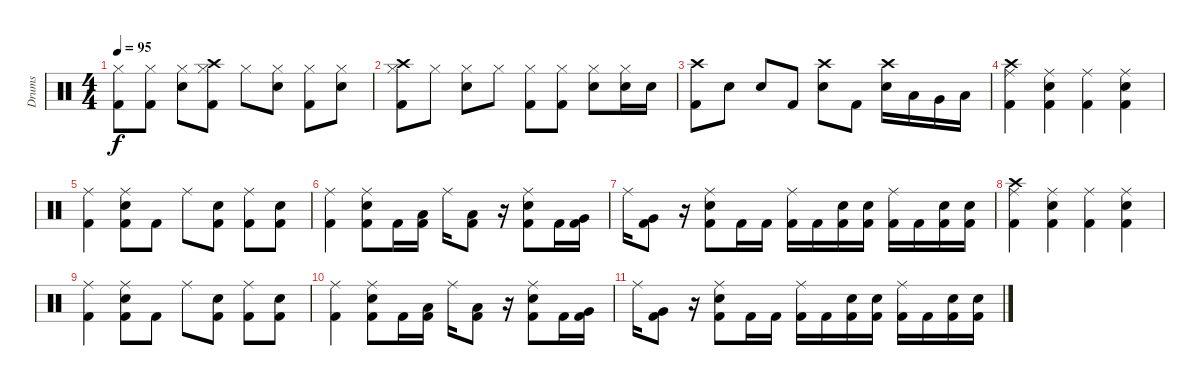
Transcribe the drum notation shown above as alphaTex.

\track ("Drums" "Drums") {instrument percussion}
\staff {score}
\articulation defaults
\ts (4 4)
\tempo 95
\clef neutral
\ks c
("Hi-Hat (closed)" "Kick (hit) 2").8{dy f} ("Hi-Hat (closed)" "Kick (hit) 2").8 ("Hi-Hat (closed)" "Electric Snare (hit)").8 ("Crash high (hit)" "Hi-Hat (closed)" "Kick (hit) 2").8 "Hi-Hat (closed)".8 ("Hi-Hat (closed)" "Electric Snare (hit)").8 ("Hi-Hat (closed)" "Kick (hit) 2").8 ("Hi-Hat (closed)" "Electric Snare (hit)").8 |
("Crash high (hit)" "Hi-Hat (closed)" "Kick (hit) 2").8 "Hi-Hat (closed)".8 ("Hi-Hat (closed)" "Electric Snare (hit)").8 "Hi-Hat (closed)".8 ("Hi-Hat (closed)" "Kick (hit) 2").8 ("Hi-Hat (closed)" "Kick (hit) 2").8 ("Hi-Hat (closed)" "Electric Snare (hit)").8 ("Electric Snare (hit)" "Hi-Hat (closed)").16 "Electric Snare (hit)".16 |
("Crash high (hit)" "Kick (hit) 2").8 "Electric Snare (hit)".8 "Electric Snare (hit)".8 "Kick (hit) 2".8 ("Crash high (hit)" "Electric Snare (hit)").8 "Kick (hit) 2".8 ("Crash high (hit)" "Electric Snare (hit)").16 "Low Tom (hit)".16 "Very Low Tom (hit)".16 "Low Floor Tom (hit)".16 |
("Crash high (hit)" "Ride (middle)" "Kick (hit) 2").4 ("Ride (middle)" "Kick (hit) 2" "Electric Snare (hit)").4 ("Ride (middle)" "Kick (hit) 2").4 ("Ride (middle)" "Kick (hit) 2" "Electric Snare (hit)").4 |
("Ride (middle)" "Kick (hit) 2").4 ("Ride (middle)" "Kick (hit) 2" "Electric Snare (hit)").8 "Kick (hit) 2".8 "Ride (middle)".8 ("Kick (hit) 2" "Electric Snare (hit)").8 ("Ride (middle)" "Kick (hit) 2").8 ("Electric Snare (hit)" "Kick (hit) 2").8 |
("Ride (middle)" "Kick (hit) 2").4 ("Ride (middle)" "Kick (hit) 2" "Electric Snare (hit)").8 "Kick (hit) 2".16 ("Kick (hit) 2" "Low Tom (hit)").16 "Ride (middle)".16 ("Kick (hit) 2" "Low Tom (hit)").8 r.16 ("Ride (middle)" "Kick (hit) 2" "Electric Snare (hit)").8 "Kick (hit) 2".16 ("Very Low Tom (hit)" "Kick (hit) 2").16 |
"Ride (middle)".16 ("Kick (hit) 2" "Very Low Tom (hit)").8 r.16 ("Ride (middle)" "Kick (hit) 2" "Electric Snare (hit)").8 "Kick (hit) 2".16 "Kick (hit) 2".16 ("Ride (middle)" "Kick (hit) 2").16 "Kick (hit) 2".16 ("Kick (hit) 2" "Electric Snare (hit)").16 ("Kick (hit) 2" "Electric Snare (hit)").16 ("Ride (middle)" "Kick (hit) 2").16 "Kick (hit) 2".16 ("Kick (hit) 2" "Electric Snare (hit)").16 ("Kick (hit) 2" "Electric Snare (hit)").16 |
("Crash high (hit)" "Ride (middle)" "Kick (hit) 2").4 ("Ride (middle)" "Kick (hit) 2" "Electric Snare (hit)").4 ("Ride (middle)" "Kick (hit) 2").4 ("Ride (middle)" "Kick (hit) 2" "Electric Snare (hit)").4 |
("Ride (middle)" "Kick (hit) 2").4 ("Ride (middle)" "Kick (hit) 2" "Electric Snare (hit)").8 "Kick (hit) 2".8 "Ride (middle)".8 ("Kick (hit) 2" "Electric Snare (hit)").8 ("Ride (middle)" "Kick (hit) 2").8 ("Electric Snare (hit)" "Kick (hit) 2").8 |
("Ride (middle)" "Kick (hit) 2").4 ("Ride (middle)" "Kick (hit) 2" "Electric Snare (hit)").8 "Kick (hit) 2".16 ("Kick (hit) 2" "Low Tom (hit)").16 "Ride (middle)".16 ("Kick (hit) 2" "Low Tom (hit)").8 r.16 ("Ride (middle)" "Kick (hit) 2" "Electric Snare (hit)").8 "Kick (hit) 2".16 ("Very Low Tom (hit)" "Kick (hit) 2").16 |
"Ride (middle)".16 ("Kick (hit) 2" "Very Low Tom (hit)").8 r.16 ("Ride (middle)" "Kick (hit) 2" "Electric Snare (hit)").8 "Kick (hit) 2".16 "Kick (hit) 2".16 ("Ride (middle)" "Kick (hit) 2").16 "Kick (hit) 2".16 ("Kick (hit) 2" "Electric Snare (hit)").16 ("Kick (hit) 2" "Electric Snare (hit)").16 ("Ride (middle)" "Kick (hit) 2").16 "Kick (hit) 2".16 ("Kick (hit) 2" "Electric Snare (hit)").16 ("Kick (hit) 2" "Electric Snare (hit)").16
